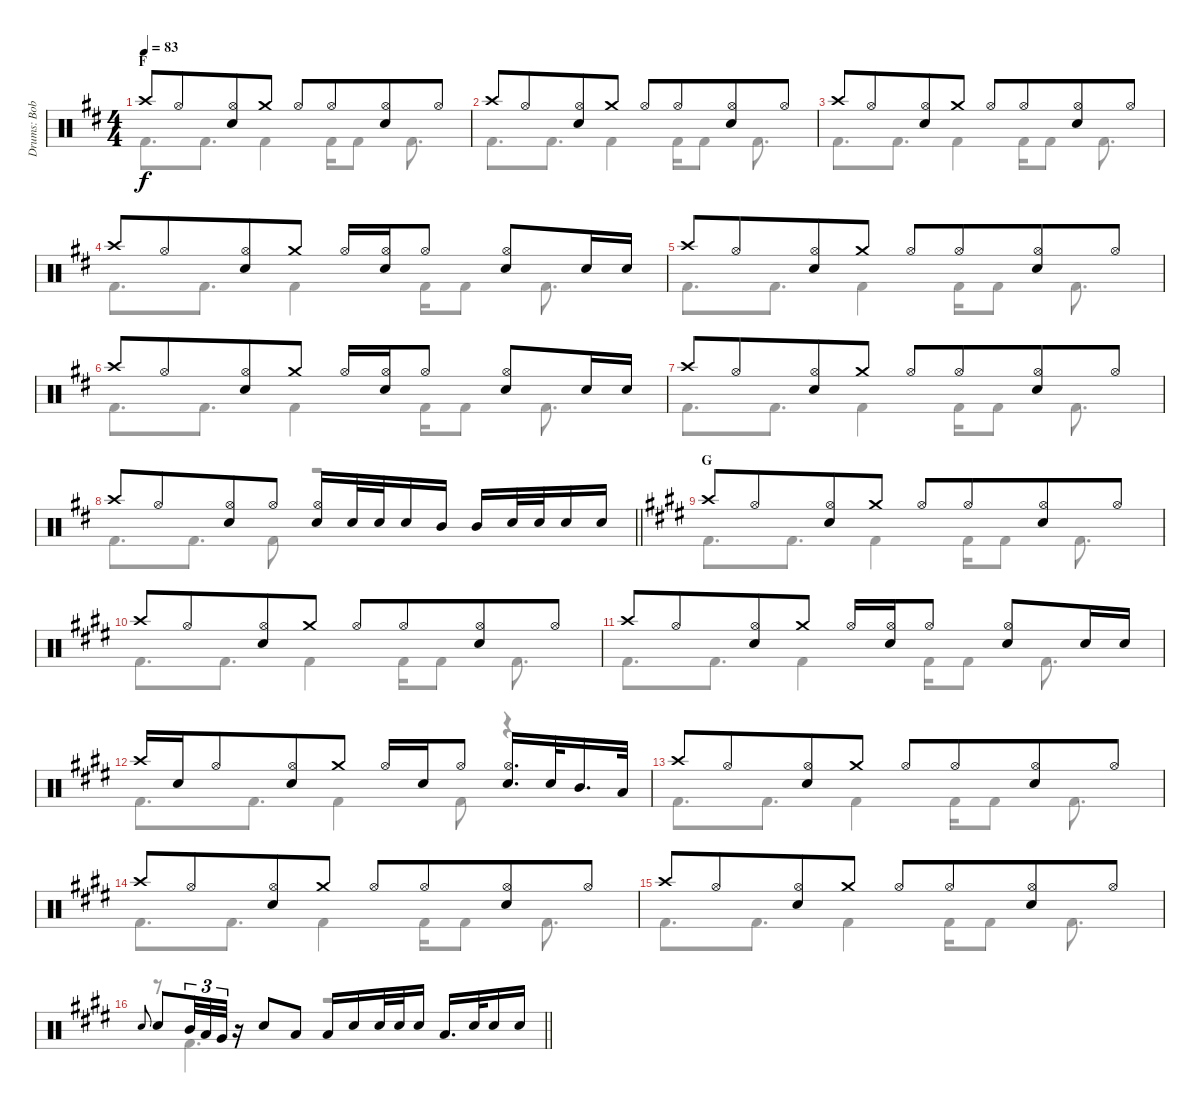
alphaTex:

\track ("Drums: Bobby" "Drums: Bob") {instrument percussion}
\staff {score}
\articulation defaults
\voice
\ts (4 4)
\section ("" "F")
\tempo 83
\clef neutral
\ks d "Crash high (hit)".8{dy f} "Hi-Hat (open)".8{beam merge}
("Hi-Hat (open)" "Snare (hit) 2").8 "Crash medium (hit)".8 "Hi-Hat (open)".8 "Hi-Hat (open)".8{beam merge} ("Hi-Hat (open)" "Snare (hit) 2").8 "Hi-Hat (open)".8 |
"Crash high (hit)".8 "Hi-Hat (open)".8{beam merge} ("Hi-Hat (open)" "Snare (hit) 2").8 "Crash medium (hit)".8 "Hi-Hat (open)".8 "Hi-Hat (open)".8{beam merge} ("Hi-Hat (open)" "Snare (hit) 2").8 "Hi-Hat (open)".8 |
"Crash high (hit)".8 "Hi-Hat (open)".8{beam merge} ("Hi-Hat (open)" "Snare (hit) 2").8 "Crash medium (hit)".8 "Hi-Hat (open)".8 "Hi-Hat (open)".8{beam merge} ("Hi-Hat (open)" "Snare (hit) 2").8 "Hi-Hat (open)".8 |
"Crash high (hit)".8 "Hi-Hat (open)".8{beam merge} ("Hi-Hat (open)" "Snare (hit) 2").8 "Crash medium (hit)".8 "Hi-Hat (open)".16{beam merge} ("Hi-Hat (open)" "Snare (hit) 2").16 "Hi-Hat (open)".8 ("Hi-Hat (open)" "Snare (hit) 2").8 "Snare (hit) 2".16 "Snare (hit) 2".16 |
"Crash high (hit)".8 "Hi-Hat (open)".8{beam merge} ("Hi-Hat (open)" "Snare (hit) 2").8 "Crash medium (hit)".8 "Hi-Hat (open)".8 "Hi-Hat (open)".8{beam merge} ("Hi-Hat (open)" "Snare (hit) 2").8 "Hi-Hat (open)".8 |
"Crash high (hit)".8 "Hi-Hat (open)".8{beam merge} ("Hi-Hat (open)" "Snare (hit) 2").8 "Crash medium (hit)".8 "Hi-Hat (open)".16{beam merge} ("Hi-Hat (open)" "Snare (hit) 2").16 "Hi-Hat (open)".8 ("Hi-Hat (open)" "Snare (hit) 2").8 "Snare (hit) 2".16 "Snare (hit) 2".16 |
"Crash high (hit)".8 "Hi-Hat (open)".8{beam merge} ("Hi-Hat (open)" "Snare (hit) 2").8 "Crash medium (hit)".8 "Hi-Hat (open)".8 "Hi-Hat (open)".8{beam merge} ("Hi-Hat (open)" "Snare (hit) 2").8 "Hi-Hat (open)".8 |
\barLineRight lightlight "Crash high (hit)".8 "Hi-Hat (open)".8{beam merge}
("Hi-Hat (open)" "Snare (hit) 2").8 "Hi-Hat (open)".8 ("Hi-Hat (open)" "Snare (hit) 2").16{beam merge} "Snare (hit) 2".32 "Snare (hit) 2".32 "Snare (hit) 2".16 "Mid Tom (hit)".16 "Mid Tom (hit)".16 "Electric Snare (hit)".32 "Electric Snare (hit)".32 "Snare (hit) 2".16 "Snare (hit) 2".16 |
\section ("" "G")
\ks e "Crash high (hit)".8 "Hi-Hat (open)".8{beam merge}
("Hi-Hat (open)" "Snare (hit) 2").8 "Crash medium (hit)".8 "Hi-Hat (open)".8 "Hi-Hat (open)".8{beam merge} ("Hi-Hat (open)" "Snare (hit) 2").8 "Hi-Hat (open)".8 |
"Crash high (hit)".8 "Hi-Hat (open)".8{beam merge} ("Hi-Hat (open)" "Snare (hit) 2").8 "Crash medium (hit)".8 "Hi-Hat (open)".8 "Hi-Hat (open)".8{beam merge} ("Hi-Hat (open)" "Snare (hit) 2").8 "Hi-Hat (open)".8 |
"Crash high (hit)".8 "Hi-Hat (open)".8{beam merge} ("Hi-Hat (open)" "Snare (hit) 2").8 "Crash medium (hit)".8 "Hi-Hat (open)".16{beam merge} ("Hi-Hat (open)" "Snare (hit) 2").16 "Hi-Hat (open)".8 ("Hi-Hat (open)" "Snare (hit) 2").8 "Snare (hit) 2".16 "Snare (hit) 2".16 |
"Crash high (hit)".16{beam merge} "Snare (hit) 2".16 "Hi-Hat (open)".8{beam merge} ("Hi-Hat (open)" "Snare (hit) 2").8 "Crash medium (hit)".8 "Hi-Hat (open)".16 "Snare (hit) 2".16 "Hi-Hat (open)".8 ("Hi-Hat (open)" "Snare (hit) 2").16{d} "Snare (hit) 2".32 "Mid Tom (hit)".16{d} "Low Tom (hit)".32 |
"Crash high (hit)".8 "Hi-Hat (open)".8{beam merge} ("Hi-Hat (open)" "Snare (hit) 2").8 "Crash medium (hit)".8 "Hi-Hat (open)".8 "Hi-Hat (open)".8{beam merge} ("Hi-Hat (open)" "Snare (hit) 2").8 "Hi-Hat (open)".8 |
"Crash high (hit)".8 "Hi-Hat (open)".8{beam merge} ("Hi-Hat (open)" "Snare (hit) 2").8 "Crash medium (hit)".8 "Hi-Hat (open)".8 "Hi-Hat (open)".8{beam merge} ("Hi-Hat (open)" "Snare (hit) 2").8 "Hi-Hat (open)".8 |
"Crash high (hit)".8 "Hi-Hat (open)".8{beam merge} ("Hi-Hat (open)" "Snare (hit) 2").8 "Crash medium (hit)".8 "Hi-Hat (open)".8 "Hi-Hat (open)".8{beam merge} ("Hi-Hat (open)" "Snare (hit) 2").8 "Hi-Hat (open)".8 |
\barLineRight lightlight "Electric Snare (hit)".8{gr onbeat} "Snare (hit) 2".8{beam merge} "Mid Tom (hit)".32{tu (3 2)} "Low Tom (hit)".32{tu (3 2) beam merge} "Very Low Tom (hit)".32{tu (3 2)}
r.16 "Snare (hit) 2".8 "Low Tom (hit)".8 "Low Tom (hit)".16 "Snare (hit) 2".16 "Snare (hit) 2".32 "Snare (hit) 2".32 "Snare (hit) 2".16 "Low Tom (hit)".16{d} "Snare (hit) 2".32 "Snare (hit) 2".16 "Snare (hit) 2".16
\voice
\clef neutral
\ottava regular
\simile none
\ks d "Kick (hit) 2".8{d dy f} "Kick (hit) 2".8{d} "Kick (hit) 2".4 "Kick (hit) 2".16 "Kick (hit) 2".8 "Kick (hit) 2".8{d}
|
"Kick (hit) 2".8{d} "Kick (hit) 2".8{d} "Kick (hit) 2".4 "Kick (hit) 2".16 "Kick (hit) 2".8 "Kick (hit) 2".8{d} |
"Kick (hit) 2".8{d} "Kick (hit) 2".8{d} "Kick (hit) 2".4 "Kick (hit) 2".16 "Kick (hit) 2".8 "Kick (hit) 2".8{d} |
"Kick (hit) 2".8{d} "Kick (hit) 2".8{d} "Kick (hit) 2".4 "Kick (hit) 2".16 "Kick (hit) 2".8 "Kick (hit) 2".8{d} |
"Kick (hit) 2".8{d} "Kick (hit) 2".8{d} "Kick (hit) 2".4 "Kick (hit) 2".16 "Kick (hit) 2".8 "Kick (hit) 2".8{d} |
"Kick (hit) 2".8{d} "Kick (hit) 2".8{d} "Kick (hit) 2".4 "Kick (hit) 2".16 "Kick (hit) 2".8 "Kick (hit) 2".8{d} |
"Kick (hit) 2".8{d} "Kick (hit) 2".8{d} "Kick (hit) 2".4 "Kick (hit) 2".16 "Kick (hit) 2".8 "Kick (hit) 2".8{d} |
\barLineRight lightlight "Kick (hit) 2".8{d} "Kick (hit) 2".8{d} "Kick (hit) 2".8
r.2 |
\ks e "Kick (hit) 2".8{d} "Kick (hit) 2".8{d} "Kick (hit) 2".4 "Kick (hit) 2".16 "Kick (hit) 2".8 "Kick (hit) 2".8{d}
|
"Kick (hit) 2".8{d} "Kick (hit) 2".8{d} "Kick (hit) 2".4 "Kick (hit) 2".16 "Kick (hit) 2".8 "Kick (hit) 2".8{d} |
"Kick (hit) 2".8{d} "Kick (hit) 2".8{d} "Kick (hit) 2".4 "Kick (hit) 2".16 "Kick (hit) 2".8 "Kick (hit) 2".8{d} |
"Kick (hit) 2".8{d} "Kick (hit) 2".8{d} "Kick (hit) 2".4 "Kick (hit) 2".8 r.4 |
"Kick (hit) 2".8{d} "Kick (hit) 2".8{d} "Kick (hit) 2".4 "Kick (hit) 2".16 "Kick (hit) 2".8 "Kick (hit) 2".8{d} |
"Kick (hit) 2".8{d} "Kick (hit) 2".8{d} "Kick (hit) 2".4 "Kick (hit) 2".16 "Kick (hit) 2".8 "Kick (hit) 2".8{d} |
"Kick (hit) 2".8{d} "Kick (hit) 2".8{d} "Kick (hit) 2".4 "Kick (hit) 2".16 "Kick (hit) 2".8 "Kick (hit) 2".8{d} |
\barLineRight lightlight
r.8 "Kick (hit) 2".4{d} r.2
